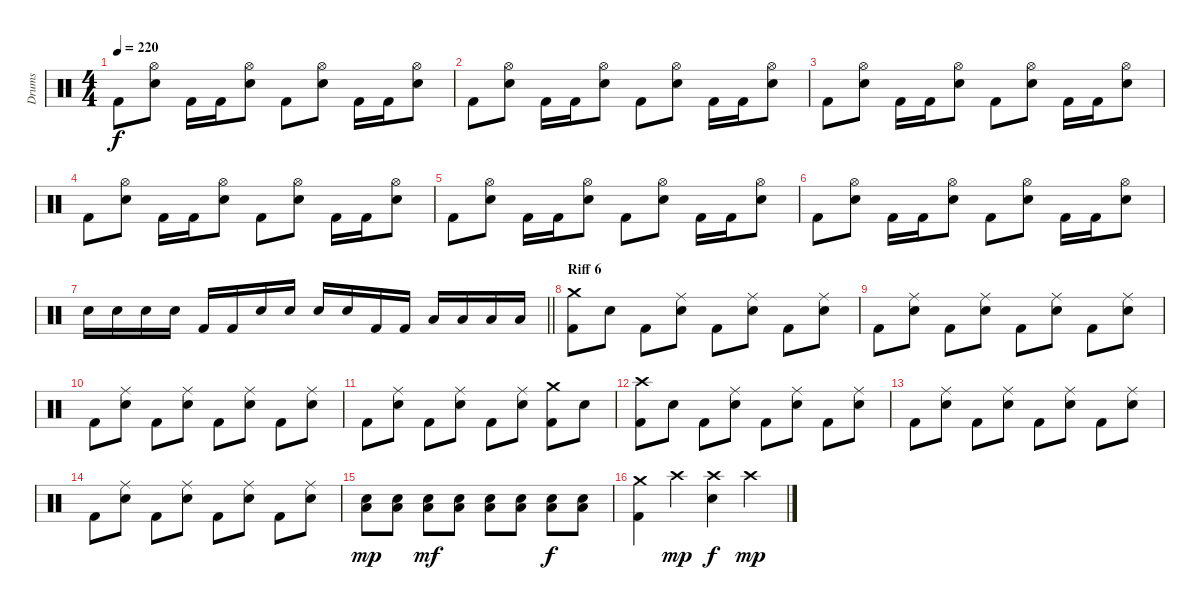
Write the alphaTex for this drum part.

\track ("Drums" "Drums") {instrument percussion}
\staff {score}
\articulation defaults
\ts (4 4)
\tempo 220
\clef neutral
\ks c "Kick (hit) 2".8{dy f}
("Electric Snare (hit)" "Hi-Hat (open)").8 "Kick (hit) 2".16 "Kick (hit) 2".16 ("Electric Snare (hit)" "Hi-Hat (open)").8 "Kick (hit) 2".8 ("Electric Snare (hit)" "Hi-Hat (open)").8 "Kick (hit) 2".16 "Kick (hit) 2".16 ("Electric Snare (hit)" "Hi-Hat (open)").8 |
"Kick (hit) 2".8 ("Electric Snare (hit)" "Hi-Hat (open)").8 "Kick (hit) 2".16 "Kick (hit) 2".16 ("Electric Snare (hit)" "Hi-Hat (open)").8 "Kick (hit) 2".8 ("Electric Snare (hit)" "Hi-Hat (open)").8 "Kick (hit) 2".16 "Kick (hit) 2".16 ("Electric Snare (hit)" "Hi-Hat (open)").8 |
"Kick (hit) 2".8 ("Electric Snare (hit)" "Hi-Hat (open)").8 "Kick (hit) 2".16 "Kick (hit) 2".16 ("Electric Snare (hit)" "Hi-Hat (open)").8 "Kick (hit) 2".8 ("Electric Snare (hit)" "Hi-Hat (open)").8 "Kick (hit) 2".16 "Kick (hit) 2".16 ("Electric Snare (hit)" "Hi-Hat (open)").8 |
"Kick (hit) 2".8 ("Electric Snare (hit)" "Hi-Hat (open)").8 "Kick (hit) 2".16 "Kick (hit) 2".16 ("Electric Snare (hit)" "Hi-Hat (open)").8 "Kick (hit) 2".8 ("Electric Snare (hit)" "Hi-Hat (open)").8 "Kick (hit) 2".16 "Kick (hit) 2".16 ("Electric Snare (hit)" "Hi-Hat (open)").8 |
"Kick (hit) 2".8 ("Electric Snare (hit)" "Hi-Hat (open)").8 "Kick (hit) 2".16 "Kick (hit) 2".16 ("Electric Snare (hit)" "Hi-Hat (open)").8 "Kick (hit) 2".8 ("Electric Snare (hit)" "Hi-Hat (open)").8 "Kick (hit) 2".16 "Kick (hit) 2".16 ("Electric Snare (hit)" "Hi-Hat (open)").8 |
"Kick (hit) 2".8 ("Electric Snare (hit)" "Hi-Hat (open)").8 "Kick (hit) 2".16 "Kick (hit) 2".16 ("Electric Snare (hit)" "Hi-Hat (open)").8 "Kick (hit) 2".8 ("Electric Snare (hit)" "Hi-Hat (open)").8 "Kick (hit) 2".16 "Kick (hit) 2".16 ("Electric Snare (hit)" "Hi-Hat (open)").8 |
\barLineRight lightlight "Electric Snare (hit)".16 "Electric Snare (hit)".16 "Electric Snare (hit)".16 "Electric Snare (hit)".16 "Kick (hit) 2".16 "Kick (hit) 2".16 "Electric Snare (hit)".16 "Electric Snare (hit)".16 "Electric Snare (hit)".16 "Electric Snare (hit)".16 "Kick (hit) 2".16 "Kick (hit) 2".16 "Low Tom (hit)".16 "Low Tom (hit)".16 "Low Tom (hit)".16 "Low Tom (hit)".16
|
\section ("" "Riff 6")
("Kick (hit) 2" "Crash medium (hit)").8 "Electric Snare (hit)".8 "Kick (hit) 2".8 ("Electric Snare (hit)" "Ride (middle)").8 "Kick (hit) 2".8 ("Electric Snare (hit)" "Ride (middle)").8 "Kick (hit) 2".8 ("Electric Snare (hit)" "Ride (middle)").8 |
"Kick (hit) 2".8 ("Electric Snare (hit)" "Ride (middle)").8 "Kick (hit) 2".8 ("Electric Snare (hit)" "Ride (middle)").8 "Kick (hit) 2".8 ("Electric Snare (hit)" "Ride (middle)").8 "Kick (hit) 2".8 ("Electric Snare (hit)" "Ride (middle)").8 |
"Kick (hit) 2".8 ("Electric Snare (hit)" "Ride (middle)").8 "Kick (hit) 2".8 ("Electric Snare (hit)" "Ride (middle)").8 "Kick (hit) 2".8 ("Electric Snare (hit)" "Ride (middle)").8 "Kick (hit) 2".8 ("Electric Snare (hit)" "Ride (middle)").8 |
"Kick (hit) 2".8 ("Electric Snare (hit)" "Ride (middle)").8 "Kick (hit) 2".8 ("Electric Snare (hit)" "Ride (middle)").8 "Kick (hit) 2".8 ("Electric Snare (hit)" "Ride (middle)").8 ("Kick (hit) 2" "Crash medium (hit)").8 "Electric Snare (hit)".8 |
("Kick (hit) 2" "Crash high (hit)").8 "Electric Snare (hit)".8 "Kick (hit) 2".8 ("Electric Snare (hit)" "Ride (middle)").8 "Kick (hit) 2".8 ("Electric Snare (hit)" "Ride (middle)").8 "Kick (hit) 2".8 ("Electric Snare (hit)" "Ride (middle)").8 |
"Kick (hit) 2".8 ("Electric Snare (hit)" "Ride (middle)").8 "Kick (hit) 2".8 ("Electric Snare (hit)" "Ride (middle)").8 "Kick (hit) 2".8 ("Electric Snare (hit)" "Ride (middle)").8 "Kick (hit) 2".8 ("Electric Snare (hit)" "Ride (middle)").8 |
"Kick (hit) 2".8 ("Electric Snare (hit)" "Ride (middle)").8 "Kick (hit) 2".8 ("Electric Snare (hit)" "Ride (middle)").8 "Kick (hit) 2".8 ("Electric Snare (hit)" "Ride (middle)").8 "Kick (hit) 2".8 ("Electric Snare (hit)" "Ride (middle)").8 |
("Electric Snare (hit)" "Low Floor Tom (hit)").8{dy mp} ("Electric Snare (hit)" "Low Floor Tom (hit)").8 ("Electric Snare (hit)" "Low Floor Tom (hit)").8{dy mf} ("Electric Snare (hit)" "Low Floor Tom (hit)").8 ("Electric Snare (hit)" "Low Floor Tom (hit)").8 ("Electric Snare (hit)" "Low Floor Tom (hit)").8 ("Electric Snare (hit)" "Low Floor Tom (hit)").8{dy f} ("Electric Snare (hit)" "Low Floor Tom (hit)").8 |
("Crash medium (hit)" "Kick (hit) 2").4 "Crash high (hit)".4{dy mp} ("Electric Snare (hit)" "Crash high (hit)").4{dy f} "Crash high (hit)".4{dy mp}
